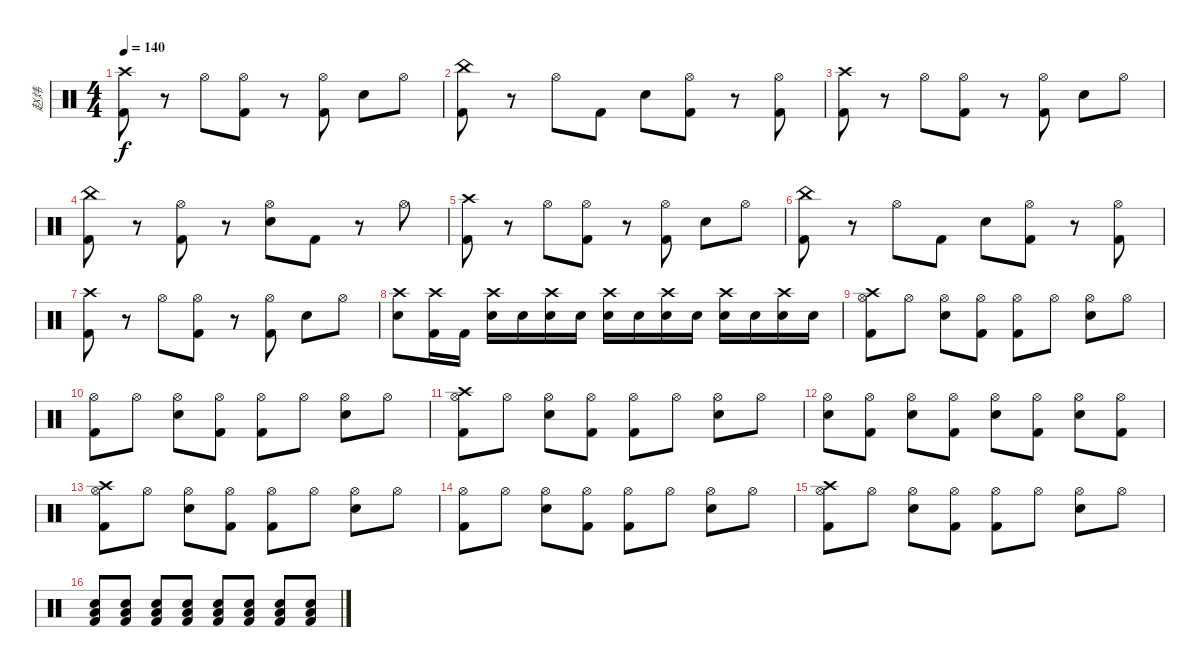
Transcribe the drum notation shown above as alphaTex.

\track ("赵炜" "赵炜") {instrument percussion}
\staff {score}
\articulation defaults
\ts (4 4)
\tempo 140
\clef neutral
\ks c
("Crash high (hit)" "Kick (hit) 2").8{dy f} r.8 "Hi-Hat (open)".8 ("Hi-Hat (open)" "Kick (hit) 2").8 r.8 ("Hi-Hat (open)" "Kick (hit) 2").8 "Snare (hit) 2".8 "Hi-Hat (open)".8 |
("China (hit)" "Kick (hit) 2").8 r.8 "Hi-Hat (open)".8 "Kick (hit) 2".8 "Snare (hit) 2".8 ("Hi-Hat (open)" "Kick (hit) 2").8 r.8 ("Hi-Hat (open)" "Kick (hit) 2").8 |
("Crash high (hit)" "Kick (hit) 2").8 r.8 "Hi-Hat (open)".8 ("Hi-Hat (open)" "Kick (hit) 2").8 r.8 ("Hi-Hat (open)" "Kick (hit) 2").8 "Snare (hit) 2".8 "Hi-Hat (open)".8 |
("China (hit)" "Kick (hit) 2").8 r.8 ("Hi-Hat (open)" "Kick (hit) 2").8 r.8 ("Hi-Hat (open)" "Snare (hit) 2").8 "Kick (hit) 2".8 r.8 "Hi-Hat (open)".8 |
("Crash high (hit)" "Kick (hit) 2").8 r.8 "Hi-Hat (open)".8 ("Hi-Hat (open)" "Kick (hit) 2").8 r.8 ("Hi-Hat (open)" "Kick (hit) 2").8 "Snare (hit) 2".8 "Hi-Hat (open)".8 |
("China (hit)" "Kick (hit) 2").8 r.8 "Hi-Hat (open)".8 "Kick (hit) 2".8 "Snare (hit) 2".8 ("Hi-Hat (open)" "Kick (hit) 2").8 r.8 ("Hi-Hat (open)" "Kick (hit) 2").8 |
("Crash high (hit)" "Kick (hit) 2").8 r.8 "Hi-Hat (open)".8 ("Hi-Hat (open)" "Kick (hit) 2").8 r.8 ("Hi-Hat (open)" "Kick (hit) 2").8 "Snare (hit) 2".8 "Hi-Hat (open)".8 |
("Crash high (hit)" "Snare (hit) 2").8 ("Crash high (hit)" "Kick (hit) 2").16 "Kick (hit) 2".16 ("Crash high (hit)" "Snare (hit) 2").16 "Snare (hit) 2".16 ("Crash high (hit)" "Snare (hit) 2").16 "Snare (hit) 2".16 ("Crash high (hit)" "Snare (hit) 2").16 "Snare (hit) 2".16 ("Crash high (hit)" "Snare (hit) 2").16 "Snare (hit) 2".16 ("Crash high (hit)" "Snare (hit) 2").16 "Snare (hit) 2".16 ("Crash high (hit)" "Snare (hit) 2").16 "Snare (hit) 2".16 |
("Crash high (hit)" "Hi-Hat (open)" "Kick (hit) 2").8 "Hi-Hat (open)".8 ("Hi-Hat (open)" "Snare (hit) 2").8 ("Hi-Hat (open)" "Kick (hit) 2").8 ("Hi-Hat (open)" "Kick (hit) 2").8 "Hi-Hat (open)".8 ("Hi-Hat (open)" "Snare (hit) 2").8 "Hi-Hat (open)".8 |
("Hi-Hat (open)" "Kick (hit) 2").8 "Hi-Hat (open)".8 ("Hi-Hat (open)" "Snare (hit) 2").8 ("Hi-Hat (open)" "Kick (hit) 2").8 ("Hi-Hat (open)" "Kick (hit) 2").8 "Hi-Hat (open)".8 ("Hi-Hat (open)" "Snare (hit) 2").8 "Hi-Hat (open)".8 |
("Crash high (hit)" "Hi-Hat (open)" "Kick (hit) 2").8 "Hi-Hat (open)".8 ("Hi-Hat (open)" "Snare (hit) 2").8 ("Hi-Hat (open)" "Kick (hit) 2").8 ("Hi-Hat (open)" "Kick (hit) 2").8 "Hi-Hat (open)".8 ("Hi-Hat (open)" "Snare (hit) 2").8 "Hi-Hat (open)".8 |
("Hi-Hat (open)" "Snare (hit) 2").8 ("Hi-Hat (open)" "Kick (hit) 2").8 ("Hi-Hat (open)" "Snare (hit) 2").8 ("Hi-Hat (open)" "Kick (hit) 2").8 ("Hi-Hat (open)" "Snare (hit) 2").8 ("Hi-Hat (open)" "Kick (hit) 2").8 ("Hi-Hat (open)" "Snare (hit) 2").8 ("Hi-Hat (open)" "Kick (hit) 2").8 |
("Crash high (hit)" "Hi-Hat (open)" "Kick (hit) 2").8 "Hi-Hat (open)".8 ("Hi-Hat (open)" "Snare (hit) 2").8 ("Hi-Hat (open)" "Kick (hit) 2").8 ("Hi-Hat (open)" "Kick (hit) 2").8 "Hi-Hat (open)".8 ("Hi-Hat (open)" "Snare (hit) 2").8 "Hi-Hat (open)".8 |
("Hi-Hat (open)" "Kick (hit) 2").8 "Hi-Hat (open)".8 ("Hi-Hat (open)" "Snare (hit) 2").8 ("Hi-Hat (open)" "Kick (hit) 2").8 ("Hi-Hat (open)" "Kick (hit) 2").8 "Hi-Hat (open)".8 ("Hi-Hat (open)" "Snare (hit) 2").8 "Hi-Hat (open)".8 |
("Crash high (hit)" "Hi-Hat (open)" "Kick (hit) 2").8 "Hi-Hat (open)".8 ("Hi-Hat (open)" "Snare (hit) 2").8 ("Hi-Hat (open)" "Kick (hit) 2").8 ("Hi-Hat (open)" "Kick (hit) 2").8 "Hi-Hat (open)".8 ("Hi-Hat (open)" "Snare (hit) 2").8 "Hi-Hat (open)".8 |
("Low Floor Tom (hit)" "Snare (hit) 2" "Kick (hit) 2").8 ("Low Floor Tom (hit)" "Snare (hit) 2" "Kick (hit) 2").8 ("Low Floor Tom (hit)" "Snare (hit) 2" "Kick (hit) 2").8 ("Low Floor Tom (hit)" "Snare (hit) 2" "Kick (hit) 2").8 ("Low Floor Tom (hit)" "Snare (hit) 2" "Kick (hit) 2").8 ("Low Floor Tom (hit)" "Snare (hit) 2" "Kick (hit) 2").8 ("Low Floor Tom (hit)" "Snare (hit) 2" "Kick (hit) 2").8 ("Low Floor Tom (hit)" "Snare (hit) 2" "Kick (hit) 2").8
